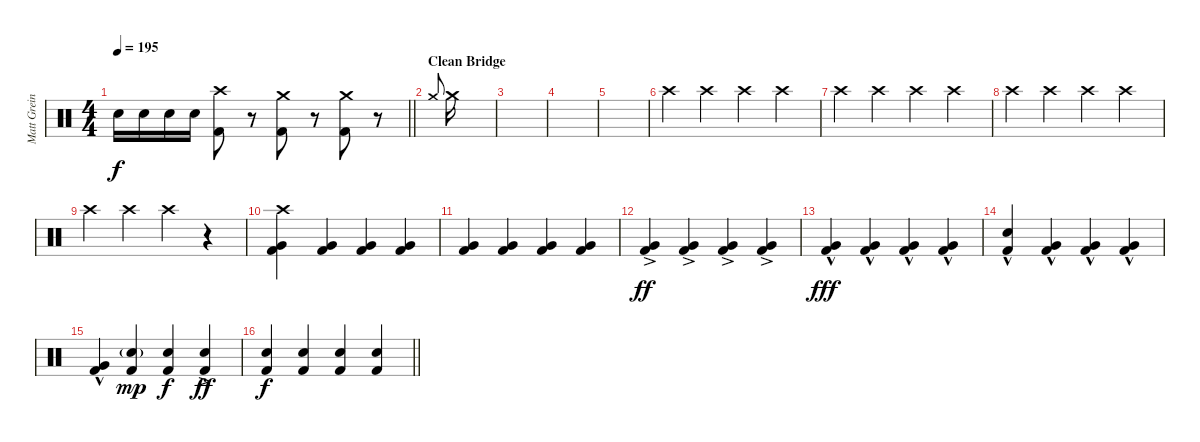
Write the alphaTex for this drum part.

\track ("Matt Greiner" "Matt Grein") {instrument percussion}
\staff {score}
\articulation defaults
\ts (4 4)
\tempo 195
\clef neutral
\barLineRight lightlight
\ks c "Electric Snare (hit)".16{dy f} "Electric Snare (hit)".16 "Electric Snare (hit)".16 "Electric Snare (hit)".16
("Crash high (hit)" "Kick (hit) 2").8 r.8 ("Crash medium (hit)" "Kick (hit) 2").8 r.8 ("Crash medium (hit)" "Kick (hit) 2").8 r.8 |
\section ("" "Clean Bridge")
"Crash medium (hit)".8{gr onbeat} "Crash medium (hit)".16{volume 0} |
|
|
|
"Crash high (hit)".4{volume 1} "Crash high (hit)".4{volume 2} "Crash high (hit)".4{volume 3} "Crash high (hit)".4{volume 4} |
"Crash high (hit)".4{volume 5} "Crash high (hit)".4{volume 6} "Crash high (hit)".4{volume 7} "Crash high (hit)".4{volume 8} |
"Crash high (hit)".4{volume 9} "Crash high (hit)".4{volume 10} "Crash high (hit)".4{volume 11} "Crash high (hit)".4 |
"Crash high (hit)".4 "Crash high (hit)".4 "Crash high (hit)".4 r.4 |
("Crash high (hit)" "Very Low Tom (hit)" "Kick (hit) 2").4 ("Very Low Tom (hit)" "Kick (hit) 2").4 ("Very Low Tom (hit)" "Kick (hit) 2").4 ("Very Low Tom (hit)" "Kick (hit) 2").4 |
("Very Low Tom (hit)" "Kick (hit) 2").4 ("Very Low Tom (hit)" "Kick (hit) 2").4 ("Very Low Tom (hit)" "Kick (hit) 2").4 ("Very Low Tom (hit)" "Kick (hit) 2").4 |
("Very Low Tom (hit)"{ac} "Kick (hit) 2").4{dy ff} ("Very Low Tom (hit)"{ac} "Kick (hit) 2").4 ("Very Low Tom (hit)"{ac} "Kick (hit) 2").4 ("Very Low Tom (hit)"{ac} "Kick (hit) 2").4 |
("Very Low Tom (hit)"{hac} "Kick (hit) 2").4{dy fff} ("Very Low Tom (hit)"{hac} "Kick (hit) 2").4 ("Very Low Tom (hit)"{hac} "Kick (hit) 2").4 ("Very Low Tom (hit)"{hac} "Kick (hit) 2").4 |
("Electric Snare (hit)"{hac} "Kick (hit) 2").4 ("Very Low Tom (hit)"{hac} "Kick (hit) 2").4 ("Very Low Tom (hit)"{hac} "Kick (hit) 2").4 ("Very Low Tom (hit)"{hac} "Kick (hit) 2").4 |
("Very Low Tom (hit)"{hac} "Kick (hit) 2").4 ("Electric Snare (hit)"{g} "Kick (hit) 2").4{dy mp} ("Electric Snare (hit)" "Kick (hit) 2").4{dy f} ("Electric Snare (hit)"{ac} "Kick (hit) 2").4{dy ff} |
\barLineRight lightlight
("Electric Snare (hit)" "Kick (hit) 2").4{dy f} ("Electric Snare (hit)" "Kick (hit) 2").4 ("Electric Snare (hit)" "Kick (hit) 2").4 ("Electric Snare (hit)" "Kick (hit) 2").4
